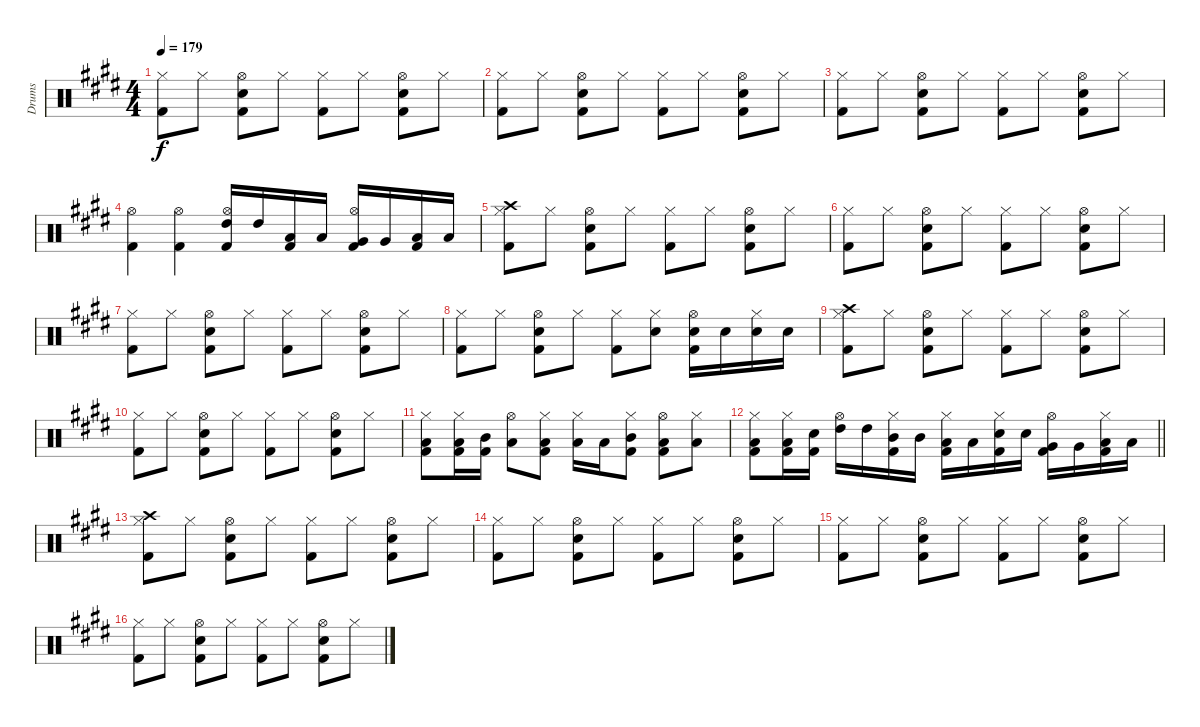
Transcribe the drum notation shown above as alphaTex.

\track ("Drums" "Drums") {instrument percussion}
\staff {score}
\articulation defaults
\ts (4 4)
\tempo 179
\clef neutral
\ks e
("Hi-Hat (closed)" "Kick (hit) 2").8{dy f} "Hi-Hat (closed)".8 ("Hi-Hat (open)" "Snare (hit) 2" "Kick (hit) 2").8 "Hi-Hat (closed)".8 ("Hi-Hat (closed)" "Kick (hit) 2").8 "Hi-Hat (closed)".8 ("Hi-Hat (open)" "Snare (hit) 2" "Kick (hit) 2").8 "Hi-Hat (closed)".8 |
("Hi-Hat (closed)" "Kick (hit) 2").8 "Hi-Hat (closed)".8 ("Hi-Hat (open)" "Snare (hit) 2" "Kick (hit) 2").8 "Hi-Hat (closed)".8 ("Hi-Hat (closed)" "Kick (hit) 2").8 "Hi-Hat (closed)".8 ("Hi-Hat (open)" "Snare (hit) 2" "Kick (hit) 2").8 "Hi-Hat (closed)".8 |
("Hi-Hat (closed)" "Kick (hit) 2").8 "Hi-Hat (closed)".8 ("Hi-Hat (open)" "Snare (hit) 2" "Kick (hit) 2").8 "Hi-Hat (closed)".8 ("Hi-Hat (closed)" "Kick (hit) 2").8 "Hi-Hat (closed)".8 ("Hi-Hat (open)" "Snare (hit) 2" "Kick (hit) 2").8 "Hi-Hat (closed)".8 |
("Hi-Hat (open)" "Kick (hit) 2").4 ("Hi-Hat (open)" "Kick (hit) 2").4 ("Hi-Hat (open)" "High Tom (hit)" "Kick (hit) 2").16 "High Tom (hit)".16 ("Low Tom (hit)" "Kick (hit) 2").16 "Low Tom (hit)".16 ("Hi-Hat (open)" "Very Low Tom (hit)" "Kick (hit) 2").16 "Very Low Tom (hit)".16 ("Low Floor Tom (hit)" "Kick (hit) 2").16 "Low Floor Tom (hit)".16 |
("Hi-Hat (closed)" "Crash high (hit)" "Kick (hit) 2").8 "Hi-Hat (closed)".8 ("Hi-Hat (open)" "Snare (hit) 2" "Kick (hit) 2").8 "Hi-Hat (closed)".8 ("Hi-Hat (closed)" "Kick (hit) 2").8 "Hi-Hat (closed)".8 ("Hi-Hat (open)" "Snare (hit) 2" "Kick (hit) 2").8 "Hi-Hat (closed)".8 |
("Hi-Hat (closed)" "Kick (hit) 2").8 "Hi-Hat (closed)".8 ("Hi-Hat (open)" "Snare (hit) 2" "Kick (hit) 2").8 "Hi-Hat (closed)".8 ("Hi-Hat (closed)" "Kick (hit) 2").8 "Hi-Hat (closed)".8 ("Hi-Hat (open)" "Snare (hit) 2" "Kick (hit) 2").8 "Hi-Hat (closed)".8 |
("Hi-Hat (closed)" "Kick (hit) 2").8 "Hi-Hat (closed)".8 ("Hi-Hat (open)" "Snare (hit) 2" "Kick (hit) 2").8 "Hi-Hat (closed)".8 ("Hi-Hat (closed)" "Kick (hit) 2").8 "Hi-Hat (closed)".8 ("Hi-Hat (open)" "Snare (hit) 2" "Kick (hit) 2").8 "Hi-Hat (closed)".8 |
("Hi-Hat (closed)" "Kick (hit) 2").8 "Hi-Hat (closed)".8 ("Hi-Hat (open)" "Snare (hit) 2" "Kick (hit) 2").8 "Hi-Hat (closed)".8 ("Hi-Hat (closed)" "Kick (hit) 2").8 ("Hi-Hat (closed)" "Snare (hit) 2").8 ("Hi-Hat (open)" "Snare (hit) 2" "Kick (hit) 2").16 "Snare (hit) 2".16 ("Hi-Hat (closed)" "Snare (hit) 2").16 "Snare (hit) 2".16 |
("Hi-Hat (closed)" "Crash high (hit)" "Kick (hit) 2").8 "Hi-Hat (closed)".8 ("Hi-Hat (open)" "Snare (hit) 2" "Kick (hit) 2").8 "Hi-Hat (closed)".8 ("Hi-Hat (closed)" "Kick (hit) 2").8 "Hi-Hat (closed)".8 ("Hi-Hat (open)" "Snare (hit) 2" "Kick (hit) 2").8 "Hi-Hat (closed)".8 |
("Hi-Hat (closed)" "Kick (hit) 2").8 "Hi-Hat (closed)".8 ("Hi-Hat (open)" "Snare (hit) 2" "Kick (hit) 2").8 "Hi-Hat (closed)".8 ("Hi-Hat (closed)" "Kick (hit) 2").8 "Hi-Hat (closed)".8 ("Hi-Hat (open)" "Snare (hit) 2" "Kick (hit) 2").8 "Hi-Hat (closed)".8 |
("Hi-Hat (closed)" "Low Tom (hit)" "Kick (hit) 2").8 ("Hi-Hat (closed)" "Low Tom (hit)" "Kick (hit) 2").16 ("Mid Tom (hit)" "Kick (hit) 2").16 ("Hi-Hat (open)" "Low Tom (hit)").8 ("Hi-Hat (closed)" "Low Tom (hit)" "Kick (hit) 2").8 ("Hi-Hat (closed)" "Low Tom (hit)").16 "Low Tom (hit)".16 ("Hi-Hat (closed)" "Mid Tom (hit)" "Kick (hit) 2").8 ("Hi-Hat (open)" "Low Tom (hit)" "Kick (hit) 2").8 ("Hi-Hat (closed)" "Low Tom (hit)").8 |
\barLineRight lightlight
("Hi-Hat (closed)" "Low Tom (hit)" "Kick (hit) 2").8 ("Hi-Hat (closed)" "Low Tom (hit)" "Kick (hit) 2").16 ("Snare (hit) 2" "Kick (hit) 2").16 ("Hi-Hat (open)" "High Tom (hit)").16 "High Tom (hit)".16 ("Hi-Hat (closed)" "Mid Tom (hit)" "Kick (hit) 2").16 "Mid Tom (hit)".16 ("Hi-Hat (closed)" "Low Tom (hit)" "Kick (hit) 2").16 "Low Tom (hit)".16 ("Hi-Hat (closed)" "Snare (hit) 2" "Kick (hit) 2").16 "Snare (hit) 2".16 ("Hi-Hat (open)" "Very Low Tom (hit)" "Kick (hit) 2").16 "Very Low Tom (hit)".16 ("Hi-Hat (closed)" "Low Floor Tom (hit)" "Kick (hit) 2").16 "Low Floor Tom (hit)".16 |
("Hi-Hat (closed)" "Crash high (hit)" "Kick (hit) 2").8 "Hi-Hat (closed)".8 ("Hi-Hat (open)" "Snare (hit) 2" "Kick (hit) 2").8 "Hi-Hat (closed)".8 ("Hi-Hat (closed)" "Kick (hit) 2").8 "Hi-Hat (closed)".8 ("Hi-Hat (open)" "Snare (hit) 2" "Kick (hit) 2").8 "Hi-Hat (closed)".8 |
("Hi-Hat (closed)" "Kick (hit) 2").8 "Hi-Hat (closed)".8 ("Hi-Hat (open)" "Snare (hit) 2" "Kick (hit) 2").8 "Hi-Hat (closed)".8 ("Hi-Hat (closed)" "Kick (hit) 2").8 "Hi-Hat (closed)".8 ("Hi-Hat (open)" "Snare (hit) 2" "Kick (hit) 2").8 "Hi-Hat (closed)".8 |
("Hi-Hat (closed)" "Kick (hit) 2").8 "Hi-Hat (closed)".8 ("Hi-Hat (open)" "Snare (hit) 2" "Kick (hit) 2").8 "Hi-Hat (closed)".8 ("Hi-Hat (closed)" "Kick (hit) 2").8 "Hi-Hat (closed)".8 ("Hi-Hat (open)" "Snare (hit) 2" "Kick (hit) 2").8 "Hi-Hat (closed)".8 |
("Hi-Hat (closed)" "Kick (hit) 2").8 "Hi-Hat (closed)".8 ("Hi-Hat (open)" "Snare (hit) 2" "Kick (hit) 2").8 "Hi-Hat (closed)".8 ("Hi-Hat (closed)" "Kick (hit) 2").8 "Hi-Hat (closed)".8 ("Hi-Hat (open)" "Snare (hit) 2" "Kick (hit) 2").8 "Hi-Hat (closed)".8
